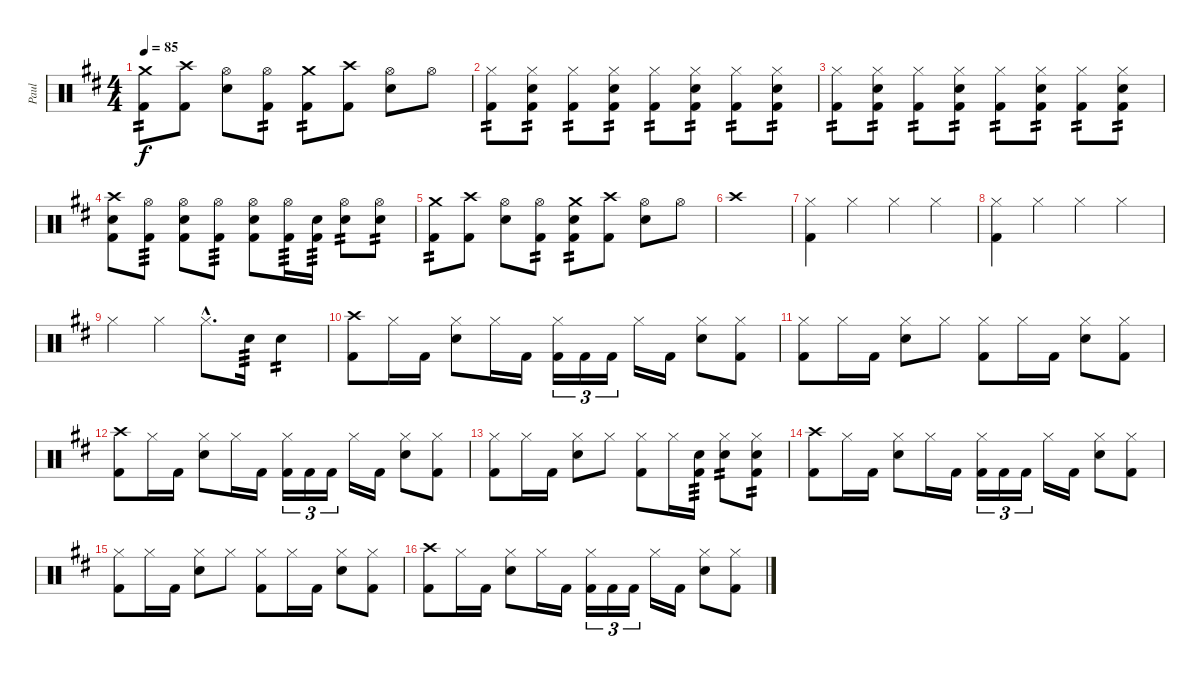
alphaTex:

\track ("Paul" "Paul") {instrument percussion}
\staff {score}
\articulation defaults
\ts (4 4)
\tempo 85
\clef neutral
\ks bminor
("Crash medium (hit)" "Kick (hit) 2").8{tp 2 dy f} ("Crash high (hit)" "Kick (hit) 2").8 ("Hi-Hat (open)" "Snare (hit) 2").8 ("Hi-Hat (open)" "Kick (hit) 2").8{tp 2} ("Crash medium (hit)" "Kick (hit) 2").8{tp 2} ("Crash high (hit)" "Kick (hit) 2").8 ("Hi-Hat (open)" "Snare (hit) 2").8 "Hi-Hat (open)".8 |
("Hi-Hat (closed)" "Kick (hit) 2").8{tp 2} ("Hi-Hat (closed)" "Snare (hit) 2" "Kick (hit) 2").8{tp 2} ("Hi-Hat (closed)" "Kick (hit) 2").8{tp 2} ("Hi-Hat (closed)" "Snare (hit) 2" "Kick (hit) 2").8{tp 2} ("Hi-Hat (closed)" "Kick (hit) 2").8{tp 2} ("Hi-Hat (closed)" "Snare (hit) 2" "Kick (hit) 2").8{tp 2} ("Hi-Hat (closed)" "Kick (hit) 2").8{tp 2} ("Hi-Hat (closed)" "Snare (hit) 2" "Kick (hit) 2").8{tp 2} |
("Hi-Hat (closed)" "Kick (hit) 2").8{tp 2} ("Hi-Hat (closed)" "Snare (hit) 2" "Kick (hit) 2").8{tp 2} ("Hi-Hat (closed)" "Kick (hit) 2").8{tp 2} ("Hi-Hat (closed)" "Snare (hit) 2" "Kick (hit) 2").8{tp 2} ("Hi-Hat (closed)" "Kick (hit) 2").8{tp 2} ("Hi-Hat (closed)" "Snare (hit) 2" "Kick (hit) 2").8{tp 2} ("Hi-Hat (closed)" "Kick (hit) 2").8{tp 2} ("Hi-Hat (closed)" "Snare (hit) 2" "Kick (hit) 2").8{tp 2} |
("Crash high (hit)" "Snare (hit) 2" "Kick (hit) 2").8 ("Hi-Hat (open)" "Kick (hit) 2").8{tp 3} ("Hi-Hat (open)" "Snare (hit) 2" "Kick (hit) 2").8 ("Hi-Hat (open)" "Kick (hit) 2").8{tp 3} ("Hi-Hat (open)" "Snare (hit) 2" "Kick (hit) 2").8 ("Hi-Hat (open)" "Kick (hit) 2").16{tp 3} ("Snare (hit) 2" "Kick (hit) 2").16{tp 3} ("Hi-Hat (open)" "Snare (hit) 2").8{tp 2} ("Hi-Hat (open)" "Snare (hit) 2").8{tp 2} |
("Crash medium (hit)" "Kick (hit) 2").8{tp 2} ("Crash high (hit)" "Kick (hit) 2").8 ("Hi-Hat (open)" "Snare (hit) 2").8 ("Hi-Hat (open)" "Kick (hit) 2").8{tp 2} ("Crash medium (hit)" "Snare (hit) 2" "Kick (hit) 2").8{tp 2} ("Crash high (hit)" "Kick (hit) 2").8 ("Hi-Hat (open)" "Snare (hit) 2").8 "Hi-Hat (open)".8 |
"Crash high (hit)".1 |
("Hi-Hat (closed)" "Kick (hit) 2").4 "Hi-Hat (closed)".4 "Hi-Hat (closed)".4 "Hi-Hat (closed)".4 |
("Hi-Hat (closed)" "Kick (hit) 2").4 "Hi-Hat (closed)".4 "Hi-Hat (closed)".4 "Hi-Hat (closed)".4 |
"Hi-Hat (closed)".4 "Hi-Hat (closed)".4 "Hi-Hat (closed)"{hac}.8{d} "Snare (hit) 2".16{tp 3} "Snare (hit) 2".4{tp 2} |
("Crash high (hit)" "Kick (hit) 2").8 "Hi-Hat (closed)".16 "Kick (hit) 2".16 ("Hi-Hat (closed)" "Snare (hit) 2").8 "Hi-Hat (closed)".16 "Kick (hit) 2".16 ("Hi-Hat (closed)" "Kick (hit) 2").16{tu (3 2)} "Kick (hit) 2".16{tu (3 2)} "Kick (hit) 2".16{tu (3 2)} "Hi-Hat (closed)".16 "Kick (hit) 2".16 ("Hi-Hat (closed)" "Snare (hit) 2").8 ("Hi-Hat (closed)" "Kick (hit) 2").8 |
("Hi-Hat (closed)" "Kick (hit) 2").8 "Hi-Hat (closed)".16 "Kick (hit) 2".16 ("Hi-Hat (closed)" "Snare (hit) 2").8 "Hi-Hat (closed)".8 ("Hi-Hat (closed)" "Kick (hit) 2").8 "Hi-Hat (closed)".16 "Kick (hit) 2".16 ("Hi-Hat (closed)" "Snare (hit) 2").8 ("Hi-Hat (closed)" "Kick (hit) 2").8 |
("Crash high (hit)" "Kick (hit) 2").8 "Hi-Hat (closed)".16 "Kick (hit) 2".16 ("Hi-Hat (closed)" "Snare (hit) 2").8 "Hi-Hat (closed)".16 "Kick (hit) 2".16 ("Hi-Hat (closed)" "Kick (hit) 2").16{tu (3 2)} "Kick (hit) 2".16{tu (3 2)} "Kick (hit) 2".16{tu (3 2)} "Hi-Hat (closed)".16 "Kick (hit) 2".16 ("Hi-Hat (closed)" "Snare (hit) 2").8 ("Hi-Hat (closed)" "Kick (hit) 2").8 |
("Hi-Hat (closed)" "Kick (hit) 2").8 "Hi-Hat (closed)".16 "Kick (hit) 2".16 ("Hi-Hat (closed)" "Snare (hit) 2").8 "Hi-Hat (closed)".8 ("Hi-Hat (closed)" "Kick (hit) 2").8 "Hi-Hat (closed)".16 ("Snare (hit) 2" "Kick (hit) 2").16{tp 3} ("Hi-Hat (closed)" "Snare (hit) 2").8{tp 2} ("Hi-Hat (closed)" "Snare (hit) 2" "Kick (hit) 2").8{tp 2} |
("Crash high (hit)" "Kick (hit) 2").8 "Hi-Hat (closed)".16 "Kick (hit) 2".16 ("Hi-Hat (closed)" "Snare (hit) 2").8 "Hi-Hat (closed)".16 "Kick (hit) 2".16 ("Hi-Hat (closed)" "Kick (hit) 2").16{tu (3 2)} "Kick (hit) 2".16{tu (3 2)} "Kick (hit) 2".16{tu (3 2)} "Hi-Hat (closed)".16 "Kick (hit) 2".16 ("Hi-Hat (closed)" "Snare (hit) 2").8 ("Hi-Hat (closed)" "Kick (hit) 2").8 |
("Hi-Hat (closed)" "Kick (hit) 2").8 "Hi-Hat (closed)".16 "Kick (hit) 2".16 ("Hi-Hat (closed)" "Snare (hit) 2").8 "Hi-Hat (closed)".8 ("Hi-Hat (closed)" "Kick (hit) 2").8 "Hi-Hat (closed)".16 "Kick (hit) 2".16 ("Hi-Hat (closed)" "Snare (hit) 2").8 ("Hi-Hat (closed)" "Kick (hit) 2").8 |
("Crash high (hit)" "Kick (hit) 2").8 "Hi-Hat (closed)".16 "Kick (hit) 2".16 ("Hi-Hat (closed)" "Snare (hit) 2").8 "Hi-Hat (closed)".16 "Kick (hit) 2".16 ("Hi-Hat (closed)" "Kick (hit) 2").16{tu (3 2)} "Kick (hit) 2".16{tu (3 2)} "Kick (hit) 2".16{tu (3 2)} "Hi-Hat (closed)".16 "Kick (hit) 2".16 ("Hi-Hat (closed)" "Snare (hit) 2").8 ("Hi-Hat (closed)" "Kick (hit) 2").8
